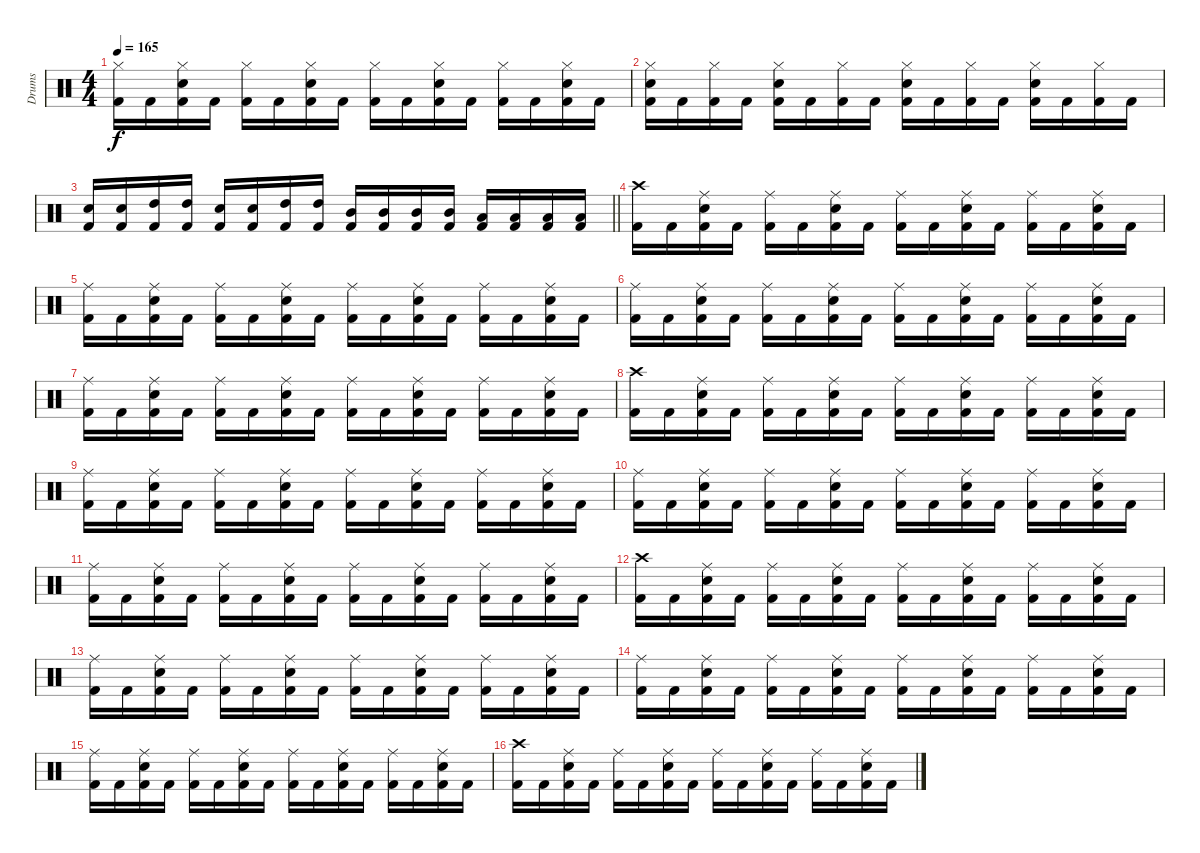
\track ("Drums" "Drums") {instrument percussion}
\staff {score}
\articulation defaults
\ts (4 4)
\tempo 165
\clef neutral
\ks c
("Hi-Hat (closed)" "Kick (hit) 2").16{dy f} "Kick (hit) 2".16 ("Hi-Hat (closed)" "Electric Snare (hit)" "Kick (hit) 2").16 "Kick (hit) 2".16 ("Hi-Hat (closed)" "Kick (hit) 2").16 "Kick (hit) 2".16 ("Hi-Hat (closed)" "Electric Snare (hit)" "Kick (hit) 2").16 "Kick (hit) 2".16 ("Hi-Hat (closed)" "Kick (hit) 2").16 "Kick (hit) 2".16 ("Hi-Hat (closed)" "Electric Snare (hit)" "Kick (hit) 2").16 "Kick (hit) 2".16 ("Hi-Hat (closed)" "Kick (hit) 2").16 "Kick (hit) 2".16 ("Hi-Hat (closed)" "Electric Snare (hit)" "Kick (hit) 2").16 "Kick (hit) 2".16 |
("Hi-Hat (closed)" "Electric Snare (hit)" "Kick (hit) 2").16 "Kick (hit) 2".16 ("Hi-Hat (closed)" "Kick (hit) 2").16 "Kick (hit) 2".16 ("Hi-Hat (closed)" "Electric Snare (hit)" "Kick (hit) 2").16 "Kick (hit) 2".16 ("Hi-Hat (closed)" "Kick (hit) 2").16 "Kick (hit) 2".16 ("Hi-Hat (closed)" "Electric Snare (hit)" "Kick (hit) 2").16 "Kick (hit) 2".16 ("Hi-Hat (closed)" "Kick (hit) 2").16 "Kick (hit) 2".16 ("Hi-Hat (closed)" "Electric Snare (hit)" "Kick (hit) 2").16 "Kick (hit) 2".16 ("Hi-Hat (closed)" "Kick (hit) 2").16 "Kick (hit) 2".16 |
\barLineRight lightlight
("Electric Snare (hit)" "Kick (hit) 2").16 ("Electric Snare (hit)" "Kick (hit) 2").16 ("High Tom (hit)" "Kick (hit) 2").16 ("High Tom (hit)" "Kick (hit) 2").16 ("Electric Snare (hit)" "Kick (hit) 2").16 ("Electric Snare (hit)" "Kick (hit) 2").16 ("High Tom (hit)" "Kick (hit) 2").16 ("High Tom (hit)" "Kick (hit) 2").16 ("Mid Tom (hit)" "Kick (hit) 2").16 ("Mid Tom (hit)" "Kick (hit) 2").16 ("Mid Tom (hit)" "Kick (hit) 2").16 ("Mid Tom (hit)" "Kick (hit) 2").16 ("Low Tom (hit)" "Kick (hit) 2").16 ("Low Tom (hit)" "Kick (hit) 2").16 ("Low Tom (hit)" "Kick (hit) 2").16 ("Low Tom (hit)" "Kick (hit) 2").16 |
("Crash high (hit)" "Kick (hit) 2").16 "Kick (hit) 2".16 ("Ride (middle)" "Electric Snare (hit)" "Kick (hit) 2").16 "Kick (hit) 2".16 ("Ride (middle)" "Kick (hit) 2").16 "Kick (hit) 2".16 ("Ride (middle)" "Electric Snare (hit)" "Kick (hit) 2").16 "Kick (hit) 2".16 ("Ride (middle)" "Kick (hit) 2").16 "Kick (hit) 2".16 ("Ride (middle)" "Electric Snare (hit)" "Kick (hit) 2").16 "Kick (hit) 2".16 ("Ride (middle)" "Kick (hit) 2").16 "Kick (hit) 2".16 ("Ride (middle)" "Electric Snare (hit)" "Kick (hit) 2").16 "Kick (hit) 2".16 |
("Ride (middle)" "Kick (hit) 2").16 "Kick (hit) 2".16 ("Ride (middle)" "Electric Snare (hit)" "Kick (hit) 2").16 "Kick (hit) 2".16 ("Ride (middle)" "Kick (hit) 2").16 "Kick (hit) 2".16 ("Ride (middle)" "Electric Snare (hit)" "Kick (hit) 2").16 "Kick (hit) 2".16 ("Ride (middle)" "Kick (hit) 2").16 "Kick (hit) 2".16 ("Ride (middle)" "Electric Snare (hit)" "Kick (hit) 2").16 "Kick (hit) 2".16 ("Ride (middle)" "Kick (hit) 2").16 "Kick (hit) 2".16 ("Ride (middle)" "Electric Snare (hit)" "Kick (hit) 2").16 "Kick (hit) 2".16 |
("Ride (middle)" "Kick (hit) 2").16 "Kick (hit) 2".16 ("Ride (middle)" "Electric Snare (hit)" "Kick (hit) 2").16 "Kick (hit) 2".16 ("Ride (middle)" "Kick (hit) 2").16 "Kick (hit) 2".16 ("Ride (middle)" "Electric Snare (hit)" "Kick (hit) 2").16 "Kick (hit) 2".16 ("Ride (middle)" "Kick (hit) 2").16 "Kick (hit) 2".16 ("Ride (middle)" "Electric Snare (hit)" "Kick (hit) 2").16 "Kick (hit) 2".16 ("Ride (middle)" "Kick (hit) 2").16 "Kick (hit) 2".16 ("Ride (middle)" "Electric Snare (hit)" "Kick (hit) 2").16 "Kick (hit) 2".16 |
("Ride (middle)" "Kick (hit) 2").16 "Kick (hit) 2".16 ("Ride (middle)" "Electric Snare (hit)" "Kick (hit) 2").16 "Kick (hit) 2".16 ("Ride (middle)" "Kick (hit) 2").16 "Kick (hit) 2".16 ("Ride (middle)" "Electric Snare (hit)" "Kick (hit) 2").16 "Kick (hit) 2".16 ("Ride (middle)" "Kick (hit) 2").16 "Kick (hit) 2".16 ("Ride (middle)" "Electric Snare (hit)" "Kick (hit) 2").16 "Kick (hit) 2".16 ("Ride (middle)" "Kick (hit) 2").16 "Kick (hit) 2".16 ("Ride (middle)" "Electric Snare (hit)" "Kick (hit) 2").16 "Kick (hit) 2".16 |
("Crash high (hit)" "Kick (hit) 2").16 "Kick (hit) 2".16 ("Ride (middle)" "Electric Snare (hit)" "Kick (hit) 2").16 "Kick (hit) 2".16 ("Ride (middle)" "Kick (hit) 2").16 "Kick (hit) 2".16 ("Ride (middle)" "Electric Snare (hit)" "Kick (hit) 2").16 "Kick (hit) 2".16 ("Ride (middle)" "Kick (hit) 2").16 "Kick (hit) 2".16 ("Ride (middle)" "Electric Snare (hit)" "Kick (hit) 2").16 "Kick (hit) 2".16 ("Ride (middle)" "Kick (hit) 2").16 "Kick (hit) 2".16 ("Ride (middle)" "Electric Snare (hit)" "Kick (hit) 2").16 "Kick (hit) 2".16 |
("Ride (middle)" "Kick (hit) 2").16 "Kick (hit) 2".16 ("Ride (middle)" "Electric Snare (hit)" "Kick (hit) 2").16 "Kick (hit) 2".16 ("Ride (middle)" "Kick (hit) 2").16 "Kick (hit) 2".16 ("Ride (middle)" "Electric Snare (hit)" "Kick (hit) 2").16 "Kick (hit) 2".16 ("Ride (middle)" "Kick (hit) 2").16 "Kick (hit) 2".16 ("Ride (middle)" "Electric Snare (hit)" "Kick (hit) 2").16 "Kick (hit) 2".16 ("Ride (middle)" "Kick (hit) 2").16 "Kick (hit) 2".16 ("Ride (middle)" "Electric Snare (hit)" "Kick (hit) 2").16 "Kick (hit) 2".16 |
("Ride (middle)" "Kick (hit) 2").16 "Kick (hit) 2".16 ("Ride (middle)" "Electric Snare (hit)" "Kick (hit) 2").16 "Kick (hit) 2".16 ("Ride (middle)" "Kick (hit) 2").16 "Kick (hit) 2".16 ("Ride (middle)" "Electric Snare (hit)" "Kick (hit) 2").16 "Kick (hit) 2".16 ("Ride (middle)" "Kick (hit) 2").16 "Kick (hit) 2".16 ("Ride (middle)" "Electric Snare (hit)" "Kick (hit) 2").16 "Kick (hit) 2".16 ("Ride (middle)" "Kick (hit) 2").16 "Kick (hit) 2".16 ("Ride (middle)" "Electric Snare (hit)" "Kick (hit) 2").16 "Kick (hit) 2".16 |
("Ride (middle)" "Kick (hit) 2").16 "Kick (hit) 2".16 ("Ride (middle)" "Electric Snare (hit)" "Kick (hit) 2").16 "Kick (hit) 2".16 ("Ride (middle)" "Kick (hit) 2").16 "Kick (hit) 2".16 ("Ride (middle)" "Electric Snare (hit)" "Kick (hit) 2").16 "Kick (hit) 2".16 ("Ride (middle)" "Kick (hit) 2").16 "Kick (hit) 2".16 ("Ride (middle)" "Electric Snare (hit)" "Kick (hit) 2").16 "Kick (hit) 2".16 ("Ride (middle)" "Kick (hit) 2").16 "Kick (hit) 2".16 ("Ride (middle)" "Electric Snare (hit)" "Kick (hit) 2").16 "Kick (hit) 2".16 |
("Crash high (hit)" "Kick (hit) 2").16 "Kick (hit) 2".16 ("Ride (middle)" "Electric Snare (hit)" "Kick (hit) 2").16 "Kick (hit) 2".16 ("Ride (middle)" "Kick (hit) 2").16 "Kick (hit) 2".16 ("Ride (middle)" "Electric Snare (hit)" "Kick (hit) 2").16 "Kick (hit) 2".16 ("Ride (middle)" "Kick (hit) 2").16 "Kick (hit) 2".16 ("Ride (middle)" "Electric Snare (hit)" "Kick (hit) 2").16 "Kick (hit) 2".16 ("Ride (middle)" "Kick (hit) 2").16 "Kick (hit) 2".16 ("Ride (middle)" "Electric Snare (hit)" "Kick (hit) 2").16 "Kick (hit) 2".16 |
("Ride (middle)" "Kick (hit) 2").16 "Kick (hit) 2".16 ("Ride (middle)" "Electric Snare (hit)" "Kick (hit) 2").16 "Kick (hit) 2".16 ("Ride (middle)" "Kick (hit) 2").16 "Kick (hit) 2".16 ("Ride (middle)" "Electric Snare (hit)" "Kick (hit) 2").16 "Kick (hit) 2".16 ("Ride (middle)" "Kick (hit) 2").16 "Kick (hit) 2".16 ("Ride (middle)" "Electric Snare (hit)" "Kick (hit) 2").16 "Kick (hit) 2".16 ("Ride (middle)" "Kick (hit) 2").16 "Kick (hit) 2".16 ("Ride (middle)" "Electric Snare (hit)" "Kick (hit) 2").16 "Kick (hit) 2".16 |
("Ride (middle)" "Kick (hit) 2").16 "Kick (hit) 2".16 ("Ride (middle)" "Electric Snare (hit)" "Kick (hit) 2").16 "Kick (hit) 2".16 ("Ride (middle)" "Kick (hit) 2").16 "Kick (hit) 2".16 ("Ride (middle)" "Electric Snare (hit)" "Kick (hit) 2").16 "Kick (hit) 2".16 ("Ride (middle)" "Kick (hit) 2").16 "Kick (hit) 2".16 ("Ride (middle)" "Electric Snare (hit)" "Kick (hit) 2").16 "Kick (hit) 2".16 ("Ride (middle)" "Kick (hit) 2").16 "Kick (hit) 2".16 ("Ride (middle)" "Electric Snare (hit)" "Kick (hit) 2").16 "Kick (hit) 2".16 |
("Ride (middle)" "Kick (hit) 2").16 "Kick (hit) 2".16 ("Ride (middle)" "Electric Snare (hit)" "Kick (hit) 2").16 "Kick (hit) 2".16 ("Ride (middle)" "Kick (hit) 2").16 "Kick (hit) 2".16 ("Ride (middle)" "Electric Snare (hit)" "Kick (hit) 2").16 "Kick (hit) 2".16 ("Ride (middle)" "Kick (hit) 2").16 "Kick (hit) 2".16 ("Ride (middle)" "Electric Snare (hit)" "Kick (hit) 2").16 "Kick (hit) 2".16 ("Ride (middle)" "Kick (hit) 2").16 "Kick (hit) 2".16 ("Ride (middle)" "Electric Snare (hit)" "Kick (hit) 2").16 "Kick (hit) 2".16 |
("Crash high (hit)" "Kick (hit) 2").16 "Kick (hit) 2".16 ("Ride (middle)" "Electric Snare (hit)" "Kick (hit) 2").16 "Kick (hit) 2".16 ("Ride (middle)" "Kick (hit) 2").16 "Kick (hit) 2".16 ("Ride (middle)" "Electric Snare (hit)" "Kick (hit) 2").16 "Kick (hit) 2".16 ("Ride (middle)" "Kick (hit) 2").16 "Kick (hit) 2".16 ("Ride (middle)" "Electric Snare (hit)" "Kick (hit) 2").16 "Kick (hit) 2".16 ("Ride (middle)" "Kick (hit) 2").16 "Kick (hit) 2".16 ("Ride (middle)" "Electric Snare (hit)" "Kick (hit) 2").16 "Kick (hit) 2".16
